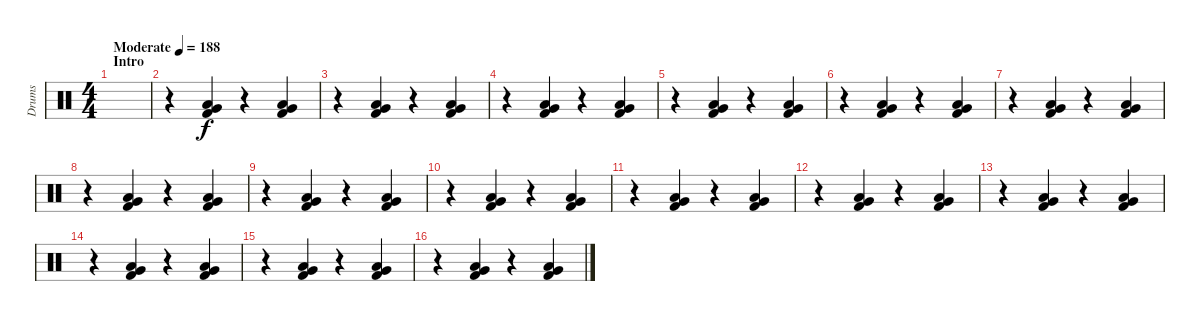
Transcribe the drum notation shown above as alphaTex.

\track ("Drums" "Drums") {instrument percussion}
\staff {score}
\articulation defaults
\ts (4 4)
\section ("" "Intro")
\tempo (188 "Moderate")
\clef neutral
\ks c
|
r.4 ("Low Floor Tom (hit)" "Very Low Tom (hit)" "Kick (hit) 2").4 r.4 ("Low Floor Tom (hit)" "Very Low Tom (hit)" "Kick (hit) 2").4 |
r.4 ("Low Floor Tom (hit)" "Very Low Tom (hit)" "Kick (hit) 2").4 r.4 ("Low Floor Tom (hit)" "Very Low Tom (hit)" "Kick (hit) 2").4 |
r.4 ("Low Floor Tom (hit)" "Very Low Tom (hit)" "Kick (hit) 2").4 r.4 ("Low Floor Tom (hit)" "Very Low Tom (hit)" "Kick (hit) 2").4 |
r.4 ("Low Floor Tom (hit)" "Very Low Tom (hit)" "Kick (hit) 2").4 r.4 ("Low Floor Tom (hit)" "Very Low Tom (hit)" "Kick (hit) 2").4 |
r.4 ("Low Floor Tom (hit)" "Very Low Tom (hit)" "Kick (hit) 2").4 r.4 ("Low Floor Tom (hit)" "Very Low Tom (hit)" "Kick (hit) 2").4 |
r.4 ("Low Floor Tom (hit)" "Very Low Tom (hit)" "Kick (hit) 2").4 r.4 ("Low Floor Tom (hit)" "Very Low Tom (hit)" "Kick (hit) 2").4 |
r.4 ("Low Floor Tom (hit)" "Very Low Tom (hit)" "Kick (hit) 2").4 r.4 ("Low Floor Tom (hit)" "Very Low Tom (hit)" "Kick (hit) 2").4 |
r.4 ("Low Floor Tom (hit)" "Very Low Tom (hit)" "Kick (hit) 2").4 r.4 ("Low Floor Tom (hit)" "Very Low Tom (hit)" "Kick (hit) 2").4 |
r.4 ("Low Floor Tom (hit)" "Very Low Tom (hit)" "Kick (hit) 2").4 r.4 ("Low Floor Tom (hit)" "Very Low Tom (hit)" "Kick (hit) 2").4 |
r.4 ("Low Floor Tom (hit)" "Very Low Tom (hit)" "Kick (hit) 2").4 r.4 ("Low Floor Tom (hit)" "Very Low Tom (hit)" "Kick (hit) 2").4 |
r.4 ("Low Floor Tom (hit)" "Very Low Tom (hit)" "Kick (hit) 2").4 r.4 ("Low Floor Tom (hit)" "Very Low Tom (hit)" "Kick (hit) 2").4 |
r.4 ("Low Floor Tom (hit)" "Very Low Tom (hit)" "Kick (hit) 2").4 r.4 ("Low Floor Tom (hit)" "Very Low Tom (hit)" "Kick (hit) 2").4 |
r.4 ("Low Floor Tom (hit)" "Very Low Tom (hit)" "Kick (hit) 2").4 r.4 ("Low Floor Tom (hit)" "Very Low Tom (hit)" "Kick (hit) 2").4 |
r.4 ("Low Floor Tom (hit)" "Very Low Tom (hit)" "Kick (hit) 2").4 r.4 ("Low Floor Tom (hit)" "Very Low Tom (hit)" "Kick (hit) 2").4 |
r.4 ("Low Floor Tom (hit)" "Very Low Tom (hit)" "Kick (hit) 2").4 r.4 ("Low Floor Tom (hit)" "Very Low Tom (hit)" "Kick (hit) 2").4
